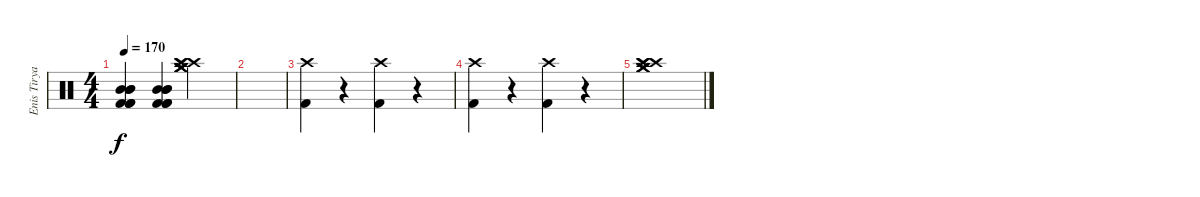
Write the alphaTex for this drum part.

\track ("Enis Tiryaki" "Enis Tirya") {instrument percussion}
\staff {score}
\articulation defaults
\ts (4 4)
\tempo 170
\clef neutral
\ks c
("Mid Tom (hit)" "Mid Tom (hit)" "Mid Tom (hit)" "Kick (hit) 2" "Kick (hit) 2" "Kick (hit) 2").4{dy f} ("Mid Tom (hit)" "Mid Tom (hit)" "Mid Tom (hit)" "Kick (hit) 2" "Kick (hit) 2" "Kick (hit) 2").4 ("Crash medium (hit)" "Crash medium (hit)" "Crash medium (hit)" "Crash high (hit)" "Crash high (hit)" "Crash high (hit)").2 |
|
("Crash high (hit)" "Kick (hit) 2").4 r.4 ("Crash high (hit)" "Kick (hit) 2").4 r.4 |
("Crash high (hit)" "Kick (hit) 2").4 r.4 ("Crash high (hit)" "Kick (hit) 2").4 r.4 |
("Crash medium (hit)" "Crash medium (hit)" "Crash medium (hit)" "Crash high (hit)" "Crash high (hit)" "Crash high (hit)").1
